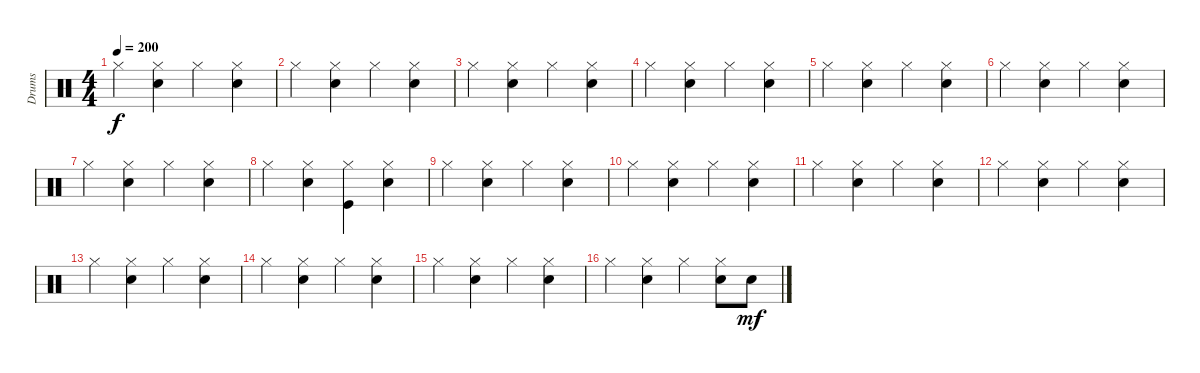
\track ("Drums" "Drums") {instrument percussion}
\staff {score}
\articulation defaults
\ts (4 4)
\tempo 200
\clef neutral
\ks c "Hi-Hat (closed)".4{dy f}
("Snare (hit) 2" "Hi-Hat (closed)").4 "Hi-Hat (closed)".4 ("Snare (hit) 2" "Hi-Hat (closed)").4 |
"Hi-Hat (closed)".4 ("Snare (hit) 2" "Hi-Hat (closed)").4 "Hi-Hat (closed)".4 ("Snare (hit) 2" "Hi-Hat (closed)").4 |
"Hi-Hat (closed)".4 ("Snare (hit) 2" "Hi-Hat (closed)").4 "Hi-Hat (closed)".4 ("Snare (hit) 2" "Hi-Hat (closed)").4 |
"Hi-Hat (closed)".4 ("Snare (hit) 2" "Hi-Hat (closed)").4 "Hi-Hat (closed)".4 ("Snare (hit) 2" "Hi-Hat (closed)").4 |
"Hi-Hat (closed)".4 ("Snare (hit) 2" "Hi-Hat (closed)").4 "Hi-Hat (closed)".4 ("Snare (hit) 2" "Hi-Hat (closed)").4 |
"Hi-Hat (closed)".4 ("Snare (hit) 2" "Hi-Hat (closed)").4 "Hi-Hat (closed)".4 ("Snare (hit) 2" "Hi-Hat (closed)").4 |
"Hi-Hat (closed)".4 ("Snare (hit) 2" "Hi-Hat (closed)").4 "Hi-Hat (closed)".4 ("Snare (hit) 2" "Hi-Hat (closed)").4 |
"Hi-Hat (closed)".4 ("Snare (hit) 2" "Hi-Hat (closed)").4 ("Kick (hit)" "Hi-Hat (closed)").4 ("Snare (hit) 2" "Hi-Hat (closed)").4 |
"Hi-Hat (closed)".4 ("Snare (hit) 2" "Hi-Hat (closed)").4 "Hi-Hat (closed)".4 ("Snare (hit) 2" "Hi-Hat (closed)").4 |
"Hi-Hat (closed)".4 ("Snare (hit) 2" "Hi-Hat (closed)").4 "Hi-Hat (closed)".4 ("Snare (hit) 2" "Hi-Hat (closed)").4 |
"Hi-Hat (closed)".4 ("Snare (hit) 2" "Hi-Hat (closed)").4 "Hi-Hat (closed)".4 ("Snare (hit) 2" "Hi-Hat (closed)").4 |
"Hi-Hat (closed)".4 ("Snare (hit) 2" "Hi-Hat (closed)").4 "Hi-Hat (closed)".4 ("Snare (hit) 2" "Hi-Hat (closed)").4 |
"Hi-Hat (closed)".4 ("Snare (hit) 2" "Hi-Hat (closed)").4 "Hi-Hat (closed)".4 ("Snare (hit) 2" "Hi-Hat (closed)").4 |
"Hi-Hat (closed)".4 ("Snare (hit) 2" "Hi-Hat (closed)").4 "Hi-Hat (closed)".4 ("Snare (hit) 2" "Hi-Hat (closed)").4 |
"Hi-Hat (closed)".4 ("Snare (hit) 2" "Hi-Hat (closed)").4 "Hi-Hat (closed)".4 ("Snare (hit) 2" "Hi-Hat (closed)").4 |
"Hi-Hat (closed)".4 ("Snare (hit) 2" "Hi-Hat (closed)").4 "Hi-Hat (closed)".4 ("Electric Snare (hit)" "Hi-Hat (closed)").8 "Electric Snare (hit)".8{dy mf}
